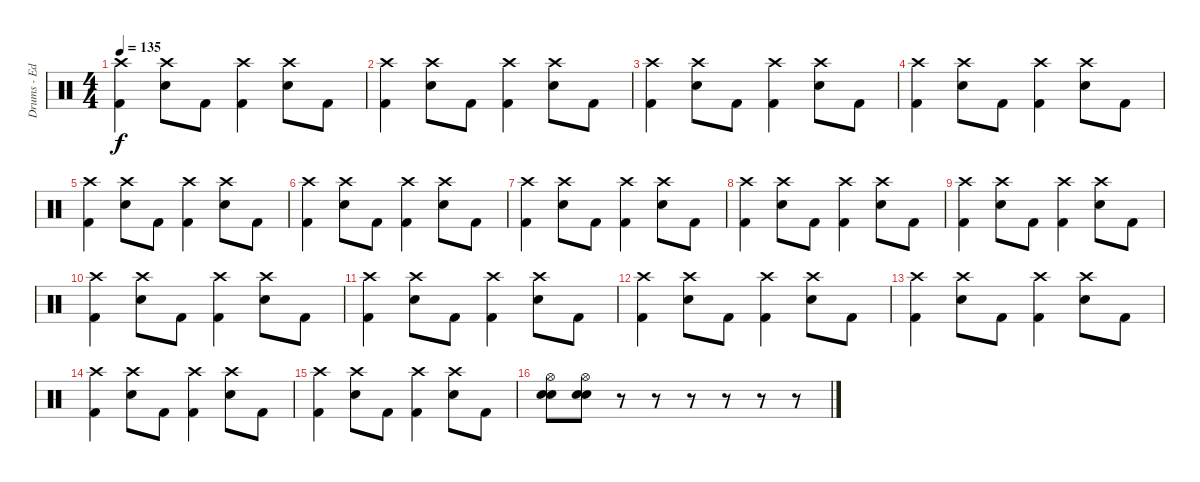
\track ("Drums - Ed Edhus" "Drums - Ed") {instrument percussion bank 127}
\staff {score}
\articulation defaults
\ts (4 4)
\tempo 135
\clef neutral
\ks c
("Crash high (hit)" "Kick (hit) 2").4{dy f} ("Crash high (hit)" "Snare (hit) 2").8 "Kick (hit) 2".8 ("Crash high (hit)" "Kick (hit) 2").4 ("Crash high (hit)" "Snare (hit) 2").8 "Kick (hit) 2".8 |
("Crash high (hit)" "Kick (hit) 2").4 ("Crash high (hit)" "Snare (hit) 2").8 "Kick (hit) 2".8 ("Crash high (hit)" "Kick (hit) 2").4 ("Crash high (hit)" "Snare (hit) 2").8 "Kick (hit) 2".8 |
("Crash high (hit)" "Kick (hit) 2").4 ("Crash high (hit)" "Snare (hit) 2").8 "Kick (hit) 2".8 ("Crash high (hit)" "Kick (hit) 2").4 ("Crash high (hit)" "Snare (hit) 2").8 "Kick (hit) 2".8 |
("Crash high (hit)" "Kick (hit) 2").4 ("Crash high (hit)" "Snare (hit) 2").8 "Kick (hit) 2".8 ("Crash high (hit)" "Kick (hit) 2").4 ("Crash high (hit)" "Snare (hit) 2").8 "Kick (hit) 2".8 |
("Crash high (hit)" "Kick (hit) 2").4 ("Crash high (hit)" "Snare (hit) 2").8 "Kick (hit) 2".8 ("Crash high (hit)" "Kick (hit) 2").4 ("Crash high (hit)" "Snare (hit) 2").8 "Kick (hit) 2".8 |
("Crash high (hit)" "Kick (hit) 2").4 ("Crash high (hit)" "Snare (hit) 2").8 "Kick (hit) 2".8 ("Crash high (hit)" "Kick (hit) 2").4 ("Crash high (hit)" "Snare (hit) 2").8 "Kick (hit) 2".8 |
("Crash high (hit)" "Kick (hit) 2").4 ("Crash high (hit)" "Snare (hit) 2").8 "Kick (hit) 2".8 ("Crash high (hit)" "Kick (hit) 2").4 ("Crash high (hit)" "Snare (hit) 2").8 "Kick (hit) 2".8 |
("Crash high (hit)" "Kick (hit) 2").4 ("Crash high (hit)" "Snare (hit) 2").8 "Kick (hit) 2".8 ("Crash high (hit)" "Kick (hit) 2").4 ("Crash high (hit)" "Snare (hit) 2").8 "Kick (hit) 2".8 |
("Crash high (hit)" "Kick (hit) 2").4 ("Crash high (hit)" "Snare (hit) 2").8 "Kick (hit) 2".8 ("Crash high (hit)" "Kick (hit) 2").4 ("Crash high (hit)" "Snare (hit) 2").8 "Kick (hit) 2".8 |
("Crash high (hit)" "Kick (hit) 2").4 ("Crash high (hit)" "Snare (hit) 2").8 "Kick (hit) 2".8 ("Crash high (hit)" "Kick (hit) 2").4 ("Crash high (hit)" "Snare (hit) 2").8 "Kick (hit) 2".8 |
("Crash high (hit)" "Kick (hit) 2").4 ("Crash high (hit)" "Snare (hit) 2").8 "Kick (hit) 2".8 ("Crash high (hit)" "Kick (hit) 2").4 ("Crash high (hit)" "Snare (hit) 2").8 "Kick (hit) 2".8 |
("Crash high (hit)" "Kick (hit) 2").4 ("Crash high (hit)" "Snare (hit) 2").8 "Kick (hit) 2".8 ("Crash high (hit)" "Kick (hit) 2").4 ("Crash high (hit)" "Snare (hit) 2").8 "Kick (hit) 2".8 |
("Crash high (hit)" "Kick (hit) 2").4 ("Crash high (hit)" "Snare (hit) 2").8 "Kick (hit) 2".8 ("Crash high (hit)" "Kick (hit) 2").4 ("Crash high (hit)" "Snare (hit) 2").8 "Kick (hit) 2".8 |
("Crash high (hit)" "Kick (hit) 2").4 ("Crash high (hit)" "Snare (hit) 2").8 "Kick (hit) 2".8 ("Crash high (hit)" "Kick (hit) 2").4 ("Crash high (hit)" "Snare (hit) 2").8 "Kick (hit) 2".8 |
("Crash high (hit)" "Kick (hit) 2").4 ("Crash high (hit)" "Snare (hit) 2").8 "Kick (hit) 2".8 ("Crash high (hit)" "Kick (hit) 2").4 ("Crash high (hit)" "Snare (hit) 2").8 "Kick (hit) 2".8 |
("Hi-Hat (open)" "Snare (hit) 2" "Snare (hit) 2").8 ("Hi-Hat (open)" "Snare (hit) 2" "Snare (hit) 2").8 r.8 r.8 r.8 r.8 r.8 r.8
